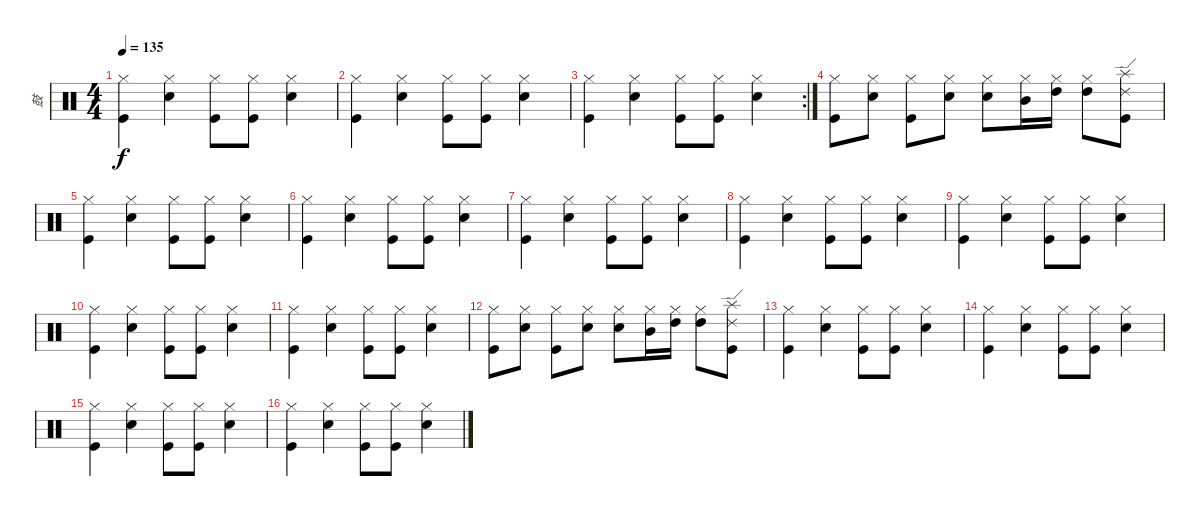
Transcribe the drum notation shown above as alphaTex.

\track ("鼓" "鼓") {instrument percussion}
\staff {score}
\articulation defaults
\ts (4 4)
\tempo 135
\clef neutral
\ks c
("Hi-Hat (closed)" "Kick (hit)").4{dy f} ("Hi-Hat (closed)" "Metronome (bell)").4 ("Hi-Hat (closed)" "Kick (hit)").8 ("Hi-Hat (closed)" "Kick (hit)").8 ("Hi-Hat (closed)" "Metronome (bell)").4 |
("Hi-Hat (closed)" "Kick (hit)").4 ("Hi-Hat (closed)" "Metronome (bell)").4 ("Hi-Hat (closed)" "Kick (hit)").8 ("Hi-Hat (closed)" "Kick (hit)").8 ("Hi-Hat (closed)" "Metronome (bell)").4 |
\rc 2
("Hi-Hat (closed)" "Kick (hit)").4 ("Hi-Hat (closed)" "Metronome (bell)").4 ("Hi-Hat (closed)" "Kick (hit)").8 ("Hi-Hat (closed)" "Kick (hit)").8 ("Hi-Hat (closed)" "Metronome (bell)").4 |
("Hi-Hat (closed)" "Kick (hit)").8 ("Hi-Hat (closed)" "Metronome (bell)").8 ("Hi-Hat (closed)" "Kick (hit)").8 ("Hi-Hat (closed)" "Metronome (bell)").8 ("Hi-Hat (closed)" "Metronome (bell)").8 ("Hi-Hat (closed)" "Mid Tom (hit)").16 ("Hi-Hat (closed)" "High Tom (hit)").16 ("Hi-Hat (closed)" "High Tom (hit)").8 ("Splash (hit)" "Ride (edge) 2" "Kick (hit)").8 |
("Hi-Hat (closed)" "Kick (hit)").4 ("Hi-Hat (closed)" "Metronome (bell)").4 ("Hi-Hat (closed)" "Kick (hit)").8 ("Hi-Hat (closed)" "Kick (hit)").8 ("Hi-Hat (closed)" "Metronome (bell)").4 |
("Hi-Hat (closed)" "Kick (hit)").4 ("Hi-Hat (closed)" "Metronome (bell)").4 ("Hi-Hat (closed)" "Kick (hit)").8 ("Hi-Hat (closed)" "Kick (hit)").8 ("Hi-Hat (closed)" "Metronome (bell)").4 |
("Hi-Hat (closed)" "Kick (hit)").4 ("Hi-Hat (closed)" "Metronome (bell)").4 ("Hi-Hat (closed)" "Kick (hit)").8 ("Hi-Hat (closed)" "Kick (hit)").8 ("Hi-Hat (closed)" "Metronome (bell)").4 |
("Hi-Hat (closed)" "Kick (hit)").4 ("Hi-Hat (closed)" "Metronome (bell)").4 ("Hi-Hat (closed)" "Kick (hit)").8 ("Hi-Hat (closed)" "Kick (hit)").8 ("Hi-Hat (closed)" "Metronome (bell)").4 |
("Hi-Hat (closed)" "Kick (hit)").4 ("Hi-Hat (closed)" "Metronome (bell)").4 ("Hi-Hat (closed)" "Kick (hit)").8 ("Hi-Hat (closed)" "Kick (hit)").8 ("Hi-Hat (closed)" "Metronome (bell)").4 |
("Hi-Hat (closed)" "Kick (hit)").4 ("Hi-Hat (closed)" "Metronome (bell)").4 ("Hi-Hat (closed)" "Kick (hit)").8 ("Hi-Hat (closed)" "Kick (hit)").8 ("Hi-Hat (closed)" "Metronome (bell)").4 |
("Hi-Hat (closed)" "Kick (hit)").4 ("Hi-Hat (closed)" "Metronome (bell)").4 ("Hi-Hat (closed)" "Kick (hit)").8 ("Hi-Hat (closed)" "Kick (hit)").8 ("Hi-Hat (closed)" "Metronome (bell)").4 |
("Hi-Hat (closed)" "Kick (hit)").8 ("Hi-Hat (closed)" "Metronome (bell)").8 ("Hi-Hat (closed)" "Kick (hit)").8 ("Hi-Hat (closed)" "Metronome (bell)").8 ("Hi-Hat (closed)" "Metronome (bell)").8 ("Hi-Hat (closed)" "Mid Tom (hit)").16 ("Hi-Hat (closed)" "High Tom (hit)").16 ("Hi-Hat (closed)" "High Tom (hit)").8 ("Splash (hit)" "Ride (edge) 2" "Kick (hit)").8 |
("Hi-Hat (closed)" "Kick (hit)").4 ("Hi-Hat (closed)" "Metronome (bell)").4 ("Hi-Hat (closed)" "Kick (hit)").8 ("Hi-Hat (closed)" "Kick (hit)").8 ("Hi-Hat (closed)" "Metronome (bell)").4 |
("Hi-Hat (closed)" "Kick (hit)").4 ("Hi-Hat (closed)" "Metronome (bell)").4 ("Hi-Hat (closed)" "Kick (hit)").8 ("Hi-Hat (closed)" "Kick (hit)").8 ("Hi-Hat (closed)" "Metronome (bell)").4 |
("Hi-Hat (closed)" "Kick (hit)").4 ("Hi-Hat (closed)" "Metronome (bell)").4 ("Hi-Hat (closed)" "Kick (hit)").8 ("Hi-Hat (closed)" "Kick (hit)").8 ("Hi-Hat (closed)" "Metronome (bell)").4 |
("Hi-Hat (closed)" "Kick (hit)").4 ("Hi-Hat (closed)" "Metronome (bell)").4 ("Hi-Hat (closed)" "Kick (hit)").8 ("Hi-Hat (closed)" "Kick (hit)").8 ("Hi-Hat (closed)" "Metronome (bell)").4
